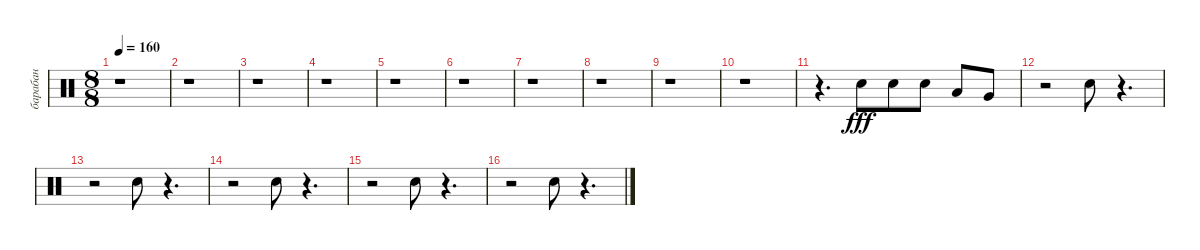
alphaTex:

\track ("барабан" "барабан") {instrument percussion}
\staff {score}
\articulation defaults
\ts (8 8)
\tempo 160
\clef neutral
\ks c
r.1{dy fff} |
r.1 |
r.1 |
r.1 |
r.1 |
r.1 |
r.1 |
r.1 |
r.1 |
r.1 |
r.4{d} "Snare (hit) 2".8 "Snare (hit) 2".8 "Snare (hit) 2".8 "Low Tom (hit)".8 "Very Low Tom (hit)".8 |
r.2 "Snare (hit) 2".8 r.4{d} |
r.2 "Snare (hit) 2".8 r.4{d} |
r.2 "Snare (hit) 2".8 r.4{d} |
r.2 "Snare (hit) 2".8 r.4{d} |
r.2 "Snare (hit) 2".8 r.4{d}
